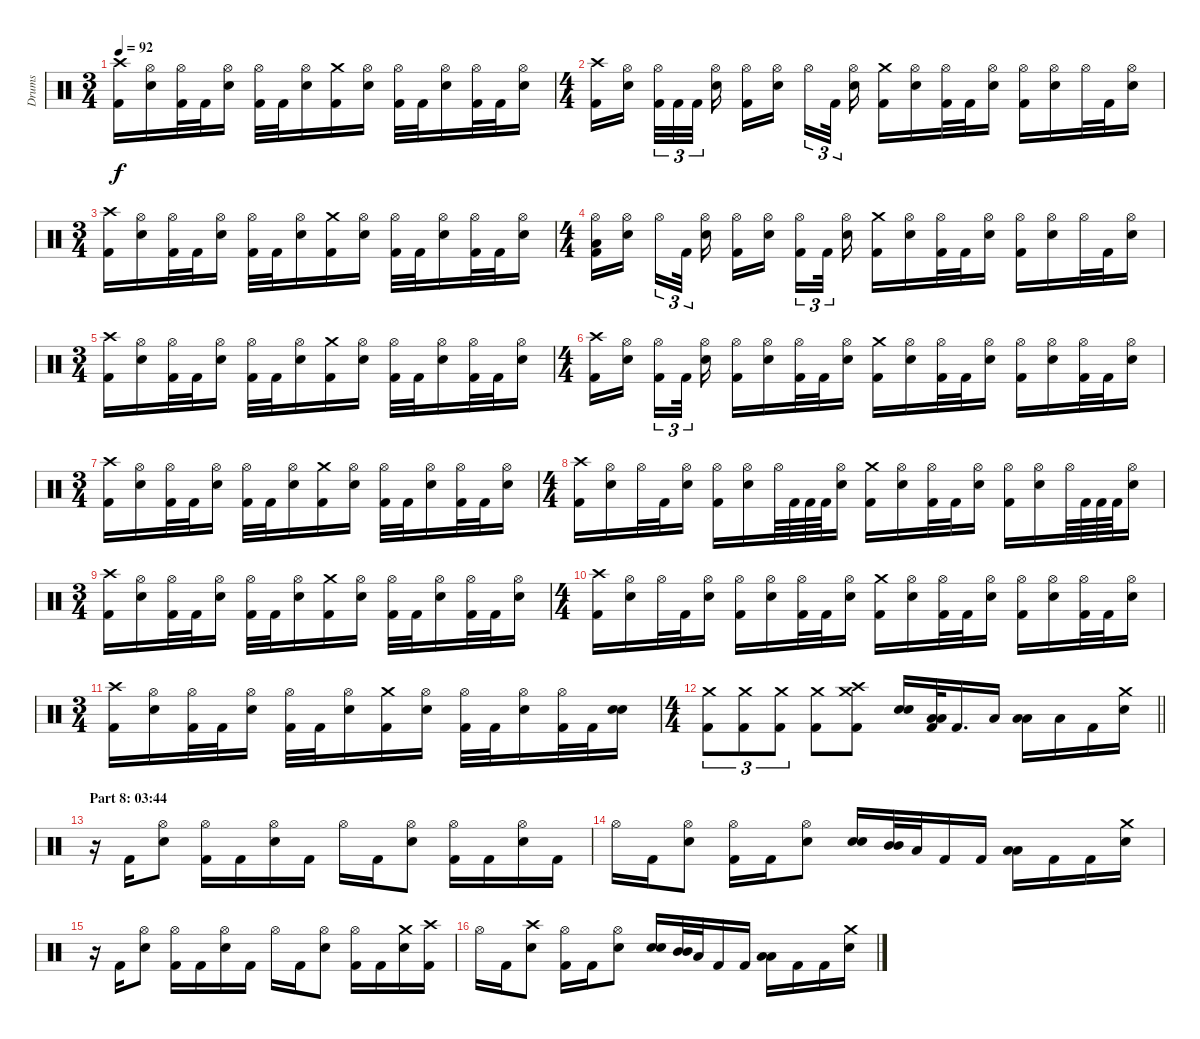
\track ("Drums" "Drums") {instrument percussion}
\staff {score}
\articulation defaults
\ts (3 4)
\tempo 92
\clef neutral
\ks c
("Crash high (hit)" "Kick (hit) 2").16{dy f} ("Hi-Hat (open)" "Electric Snare (hit)").16 ("Hi-Hat (open)" "Kick (hit) 2").32 "Kick (hit) 2".32 ("Hi-Hat (open)" "Electric Snare (hit)").16 ("Hi-Hat (open)" "Kick (hit) 2").32 "Kick (hit) 2".32 ("Hi-Hat (open)" "Electric Snare (hit)").16 ("Crash medium (hit)" "Kick (hit) 2").16 ("Hi-Hat (open)" "Electric Snare (hit)").16 ("Hi-Hat (open)" "Kick (hit) 2").32 "Kick (hit) 2".32 ("Hi-Hat (open)" "Electric Snare (hit)").16 ("Hi-Hat (open)" "Kick (hit) 2").32 "Kick (hit) 2".32 ("Hi-Hat (open)" "Electric Snare (hit)").16 |
\ts (4 4)
("Crash high (hit)" "Kick (hit) 2").16 ("Hi-Hat (open)" "Electric Snare (hit)").16{beam splitsecondary} ("Hi-Hat (open)" "Kick (hit) 2").32{tu (3 2)} "Kick (hit) 2".32{tu (3 2)} "Kick (hit) 2".32{tu (3 2) beam splitsecondary} ("Hi-Hat (open)" "Electric Snare (hit)").16 ("Hi-Hat (open)" "Kick (hit) 2").16 ("Hi-Hat (open)" "Electric Snare (hit)").16{beam splitsecondary} "Hi-Hat (open)".16{tu (3 2)} "Kick (hit) 2".32{tu (3 2) beam splitsecondary} ("Hi-Hat (open)" "Electric Snare (hit)").16 ("Crash medium (hit)" "Kick (hit) 2").16 ("Hi-Hat (open)" "Electric Snare (hit)").16 ("Hi-Hat (open)" "Kick (hit) 2").32 "Kick (hit) 2".32 ("Hi-Hat (open)" "Electric Snare (hit)").16 ("Hi-Hat (open)" "Kick (hit) 2").16 ("Hi-Hat (open)" "Electric Snare (hit)").16 "Hi-Hat (open)".32 "Kick (hit) 2".32 ("Hi-Hat (open)" "Electric Snare (hit)").16 |
\ts (3 4)
("Crash high (hit)" "Kick (hit) 2").16 ("Hi-Hat (open)" "Electric Snare (hit)").16 ("Hi-Hat (open)" "Kick (hit) 2").32 "Kick (hit) 2".32 ("Hi-Hat (open)" "Electric Snare (hit)").16 ("Hi-Hat (open)" "Kick (hit) 2").32 "Kick (hit) 2".32 ("Hi-Hat (open)" "Electric Snare (hit)").16 ("Crash medium (hit)" "Kick (hit) 2").16 ("Hi-Hat (open)" "Electric Snare (hit)").16 ("Hi-Hat (open)" "Kick (hit) 2").32 "Kick (hit) 2".32 ("Hi-Hat (open)" "Electric Snare (hit)").16 ("Hi-Hat (open)" "Kick (hit) 2").32 "Kick (hit) 2".32 ("Hi-Hat (open)" "Electric Snare (hit)").16 |
\ts (4 4)
("Hi-Hat (open)" "Low Floor Tom (hit)" "Kick (hit) 2").16 ("Hi-Hat (open)" "Electric Snare (hit)").16{beam splitsecondary} "Hi-Hat (open)".16{tu (3 2)} "Kick (hit) 2".32{tu (3 2) beam splitsecondary} ("Hi-Hat (open)" "Electric Snare (hit)").16 ("Hi-Hat (open)" "Kick (hit) 2").16 ("Hi-Hat (open)" "Electric Snare (hit)").16{beam splitsecondary} ("Hi-Hat (open)" "Kick (hit) 2").16{tu (3 2)} "Kick (hit) 2".32{tu (3 2) beam splitsecondary} ("Hi-Hat (open)" "Electric Snare (hit)").16 ("Crash medium (hit)" "Kick (hit) 2").16 ("Hi-Hat (open)" "Electric Snare (hit)").16 ("Hi-Hat (open)" "Kick (hit) 2").32 "Kick (hit) 2".32 ("Hi-Hat (open)" "Electric Snare (hit)").16 ("Hi-Hat (open)" "Kick (hit) 2").16 ("Hi-Hat (open)" "Electric Snare (hit)").16 "Hi-Hat (open)".32 "Kick (hit) 2".32 ("Hi-Hat (open)" "Electric Snare (hit)").16 |
\ts (3 4)
("Crash high (hit)" "Kick (hit) 2").16 ("Hi-Hat (open)" "Electric Snare (hit)").16 ("Hi-Hat (open)" "Kick (hit) 2").32 "Kick (hit) 2".32 ("Hi-Hat (open)" "Electric Snare (hit)").16 ("Hi-Hat (open)" "Kick (hit) 2").32 "Kick (hit) 2".32 ("Hi-Hat (open)" "Electric Snare (hit)").16 ("Crash medium (hit)" "Kick (hit) 2").16 ("Hi-Hat (open)" "Electric Snare (hit)").16 ("Hi-Hat (open)" "Kick (hit) 2").32 "Kick (hit) 2".32 ("Hi-Hat (open)" "Electric Snare (hit)").16 ("Hi-Hat (open)" "Kick (hit) 2").32 "Kick (hit) 2".32 ("Hi-Hat (open)" "Electric Snare (hit)").16 |
\ts (4 4)
("Crash high (hit)" "Kick (hit) 2").16 ("Hi-Hat (open)" "Electric Snare (hit)").16{beam splitsecondary} ("Hi-Hat (open)" "Kick (hit) 2").16{tu (3 2)} "Kick (hit) 2".32{tu (3 2) beam splitsecondary} ("Hi-Hat (open)" "Electric Snare (hit)").16 ("Hi-Hat (open)" "Kick (hit) 2").16 ("Hi-Hat (open)" "Electric Snare (hit)").16 ("Hi-Hat (open)" "Kick (hit) 2").32 "Kick (hit) 2".32 ("Hi-Hat (open)" "Electric Snare (hit)").16 ("Crash medium (hit)" "Kick (hit) 2").16 ("Hi-Hat (open)" "Electric Snare (hit)").16 ("Hi-Hat (open)" "Kick (hit) 2").32 "Kick (hit) 2".32 ("Hi-Hat (open)" "Electric Snare (hit)").16 ("Hi-Hat (open)" "Kick (hit) 2").16 ("Hi-Hat (open)" "Electric Snare (hit)").16 ("Hi-Hat (open)" "Kick (hit) 2").32 "Kick (hit) 2".32 ("Hi-Hat (open)" "Electric Snare (hit)").16 |
\ts (3 4)
("Crash high (hit)" "Kick (hit) 2").16 ("Hi-Hat (open)" "Electric Snare (hit)").16 ("Hi-Hat (open)" "Kick (hit) 2").32 "Kick (hit) 2".32 ("Hi-Hat (open)" "Electric Snare (hit)").16 ("Hi-Hat (open)" "Kick (hit) 2").32 "Kick (hit) 2".32 ("Hi-Hat (open)" "Electric Snare (hit)").16 ("Crash medium (hit)" "Kick (hit) 2").16 ("Hi-Hat (open)" "Electric Snare (hit)").16 ("Hi-Hat (open)" "Kick (hit) 2").32 "Kick (hit) 2".32 ("Hi-Hat (open)" "Electric Snare (hit)").16 ("Hi-Hat (open)" "Kick (hit) 2").32 "Kick (hit) 2".32 ("Hi-Hat (open)" "Electric Snare (hit)").16 |
\ts (4 4)
("Crash high (hit)" "Kick (hit) 2").16 ("Hi-Hat (open)" "Electric Snare (hit)").16 "Hi-Hat (open)".32 "Kick (hit) 2".32 ("Hi-Hat (open)" "Electric Snare (hit)").16 ("Hi-Hat (open)" "Kick (hit) 2").16 ("Hi-Hat (open)" "Electric Snare (hit)").16 "Hi-Hat (open)".64 "Kick (hit) 2".64 "Kick (hit) 2".64 "Kick (hit) 2".64 ("Hi-Hat (open)" "Electric Snare (hit)").16 ("Crash medium (hit)" "Kick (hit) 2").16 ("Hi-Hat (open)" "Electric Snare (hit)").16 ("Hi-Hat (open)" "Kick (hit) 2").32 "Kick (hit) 2".32 ("Hi-Hat (open)" "Electric Snare (hit)").16 ("Hi-Hat (open)" "Kick (hit) 2").16 ("Hi-Hat (open)" "Electric Snare (hit)").16 "Hi-Hat (open)".64 "Kick (hit) 2".64 "Kick (hit) 2".64 "Kick (hit) 2".64 ("Hi-Hat (open)" "Electric Snare (hit)").16 |
\ts (3 4)
("Crash high (hit)" "Kick (hit) 2").16 ("Hi-Hat (open)" "Electric Snare (hit)").16 ("Hi-Hat (open)" "Kick (hit) 2").32 "Kick (hit) 2".32 ("Hi-Hat (open)" "Electric Snare (hit)").16 ("Hi-Hat (open)" "Kick (hit) 2").32 "Kick (hit) 2".32 ("Hi-Hat (open)" "Electric Snare (hit)").16 ("Crash medium (hit)" "Kick (hit) 2").16 ("Hi-Hat (open)" "Electric Snare (hit)").16 ("Hi-Hat (open)" "Kick (hit) 2").32 "Kick (hit) 2".32 ("Hi-Hat (open)" "Electric Snare (hit)").16 ("Hi-Hat (open)" "Kick (hit) 2").32 "Kick (hit) 2".32 ("Hi-Hat (open)" "Electric Snare (hit)").16 |
\ts (4 4)
("Crash high (hit)" "Kick (hit) 2").16 ("Hi-Hat (open)" "Electric Snare (hit)").16 "Hi-Hat (open)".32 "Kick (hit) 2".32 ("Hi-Hat (open)" "Electric Snare (hit)").16 ("Hi-Hat (open)" "Kick (hit) 2").16 ("Hi-Hat (open)" "Electric Snare (hit)").16 ("Hi-Hat (open)" "Kick (hit) 2").32 "Kick (hit) 2".32 ("Hi-Hat (open)" "Electric Snare (hit)").16 ("Crash medium (hit)" "Kick (hit) 2").16 ("Hi-Hat (open)" "Electric Snare (hit)").16 ("Hi-Hat (open)" "Kick (hit) 2").32 "Kick (hit) 2".32 ("Hi-Hat (open)" "Electric Snare (hit)").16 ("Hi-Hat (open)" "Kick (hit) 2").16 ("Hi-Hat (open)" "Electric Snare (hit)").16 ("Hi-Hat (open)" "Kick (hit) 2").32 "Kick (hit) 2".32 ("Hi-Hat (open)" "Electric Snare (hit)").16 |
\ts (3 4)
("Crash high (hit)" "Kick (hit) 2").16 ("Hi-Hat (open)" "Electric Snare (hit)").16 ("Hi-Hat (open)" "Kick (hit) 2").32 "Kick (hit) 2".32 ("Hi-Hat (open)" "Electric Snare (hit)").16 ("Hi-Hat (open)" "Kick (hit) 2").32 "Kick (hit) 2".32 ("Hi-Hat (open)" "Electric Snare (hit)").16 ("Crash medium (hit)" "Kick (hit) 2").16 ("Hi-Hat (open)" "Electric Snare (hit)").16 ("Hi-Hat (open)" "Kick (hit) 2").32 "Kick (hit) 2".32 ("Hi-Hat (open)" "Electric Snare (hit)").16 ("Hi-Hat (open)" "Kick (hit) 2").32 "Kick (hit) 2".32 ("Electric Snare (hit)" "Electric Snare (hit)").16{bd 30} |
\ts (4 4)
\barLineRight lightlight
("Crash medium (hit)" "Kick (hit) 2").8{tu (3 2)} ("Crash medium (hit)" "Kick (hit) 2").8{tu (3 2)} ("Crash medium (hit)" "Kick (hit) 2").8{tu (3 2)} ("Crash medium (hit)" "Kick (hit) 2").8 ("Crash medium (hit)" "Crash high (hit)" "Kick (hit) 2").8 ("Electric Snare (hit)" "Electric Snare (hit)").16{bd 30} ("Low Tom (hit)" "Low Tom (hit)" "Kick (hit) 2").32{bd 30} "Kick (hit) 2".16{d} "Low Floor Tom (hit)".16 ("Low Tom (hit)" "Low Tom (hit)").16{bd 30} "Low Floor Tom (hit)".16 "Kick (hit) 2".16 ("Crash medium (hit)" "Electric Snare (hit)").16 |
\section ("" "Part 8: 03:44")
r.16 "Kick (hit) 2".16 ("Hi-Hat (open)" "Electric Snare (hit)").8 ("Hi-Hat (open)" "Kick (hit) 2").16 "Kick (hit) 2".16 ("Hi-Hat (open)" "Electric Snare (hit)").16 "Kick (hit) 2".16 "Hi-Hat (open)".16 "Kick (hit) 2".16 ("Hi-Hat (open)" "Electric Snare (hit)").8 ("Hi-Hat (open)" "Kick (hit) 2").16 "Kick (hit) 2".16 ("Hi-Hat (open)" "Electric Snare (hit)").16 "Kick (hit) 2".16 |
"Hi-Hat (open)".16 "Kick (hit) 2".16 ("Hi-Hat (open)" "Electric Snare (hit)").8 ("Hi-Hat (open)" "Kick (hit) 2").16 "Kick (hit) 2".16 ("Hi-Hat (open)" "Electric Snare (hit)").8 ("Electric Snare (hit)" "Electric Snare (hit)").16{bd 30} ("Mid Tom (hit)" "Mid Tom (hit)").32{bd 30} "Low Tom (hit)".32 "Kick (hit) 2".16 "Kick (hit) 2".16 ("Low Tom (hit)" "Low Tom (hit)").16{bd 30} "Kick (hit) 2".16 "Kick (hit) 2".16 ("Crash medium (hit)" "Electric Snare (hit)").16 |
r.16 "Kick (hit) 2".16 ("Hi-Hat (open)" "Electric Snare (hit)").8 ("Hi-Hat (open)" "Kick (hit) 2").16 "Kick (hit) 2".16 ("Hi-Hat (open)" "Electric Snare (hit)").16 "Kick (hit) 2".16 "Hi-Hat (open)".16 "Kick (hit) 2".16 ("Hi-Hat (open)" "Electric Snare (hit)").8 ("Hi-Hat (open)" "Kick (hit) 2").16 "Kick (hit) 2".16 ("Crash medium (hit)" "Electric Snare (hit)").16 ("Crash high (hit)" "Kick (hit) 2").16 |
"Hi-Hat (open)".16 "Kick (hit) 2".16 ("Crash high (hit)" "Electric Snare (hit)").8 ("Hi-Hat (open)" "Kick (hit) 2").16 "Kick (hit) 2".16 ("Hi-Hat (open)" "Electric Snare (hit)").8 ("Electric Snare (hit)" "Electric Snare (hit)").16{bd 30} ("Mid Tom (hit)" "Mid Tom (hit)").32{bd 30} "Low Tom (hit)".32 "Kick (hit) 2".16 "Kick (hit) 2".16 ("Low Tom (hit)" "Low Tom (hit)").16{bd 30} "Kick (hit) 2".16 "Kick (hit) 2".16 ("Crash medium (hit)" "Electric Snare (hit)").16
